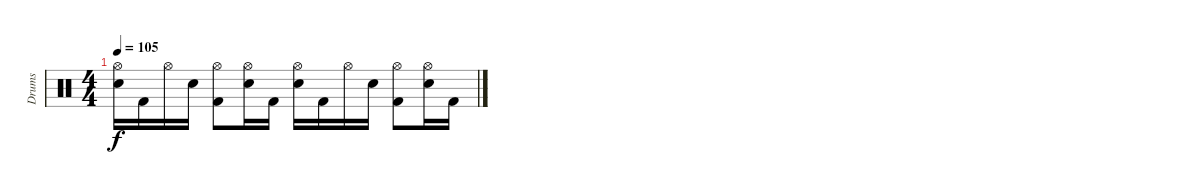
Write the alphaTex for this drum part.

\track ("Drums" "Drums") {instrument percussion}
\staff {score}
\articulation defaults
\ts (4 4)
\tempo 105
\clef neutral
\ks c
("Hi-Hat (open)" "Snare (hit) 2").16{dy f} "Kick (hit) 2".16 "Hi-Hat (open)".16 "Snare (hit) 2".16 ("Hi-Hat (open)" "Kick (hit) 2").8 ("Hi-Hat (open)" "Snare (hit) 2").16 "Kick (hit) 2".16 ("Hi-Hat (open)" "Snare (hit) 2").16 "Kick (hit) 2".16 "Hi-Hat (open)".16 "Snare (hit) 2".16 ("Hi-Hat (open)" "Kick (hit) 2").8 ("Hi-Hat (open)" "Snare (hit) 2").16 "Kick (hit) 2".16
